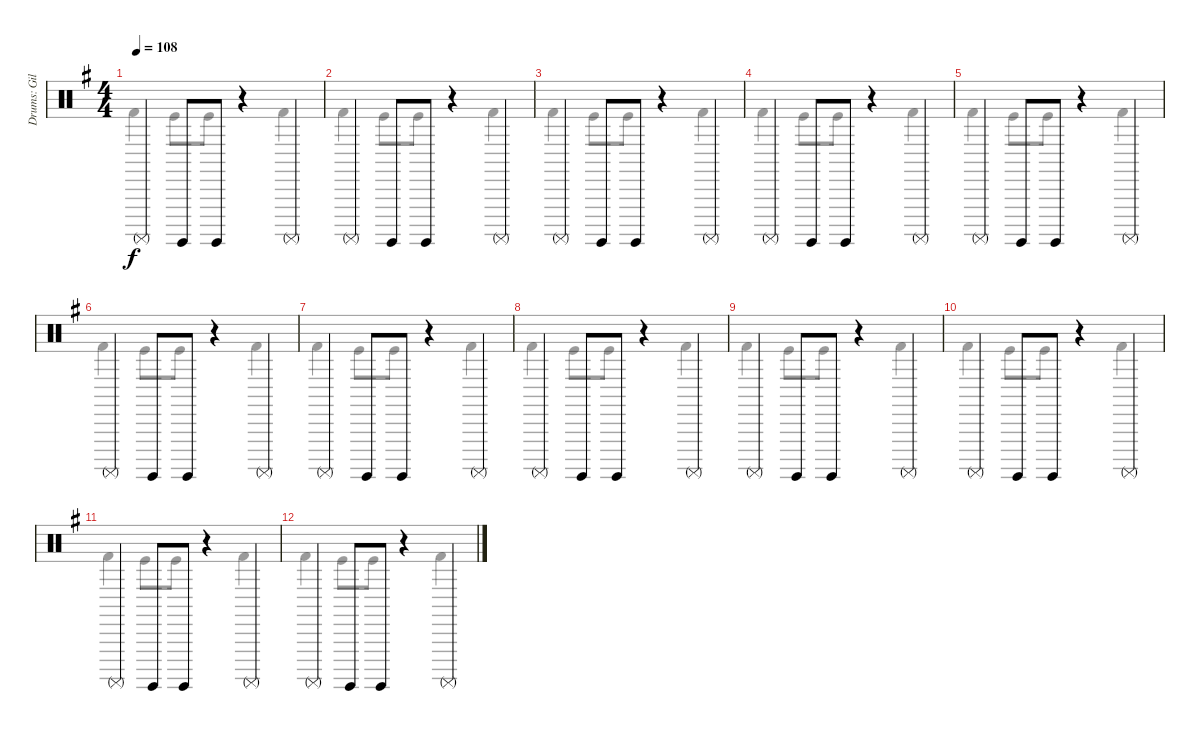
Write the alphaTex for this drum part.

\track ("Drums: Gil" "Drums: Gil") {instrument percussion}
\staff {score}
\articulation defaults
\voice
\ts (4 4)
\tempo 108
\clef neutral
\ks g "Surdo (mute)".4{dy f} "Surdo (hit)".8 "Surdo (hit)".8
r.4 "Surdo (mute)".4 |
"Surdo (mute)".4 "Surdo (hit)".8 "Surdo (hit)".8 r.4 "Surdo (mute)".4 |
"Surdo (mute)".4 "Surdo (hit)".8 "Surdo (hit)".8 r.4 "Surdo (mute)".4 |
"Surdo (mute)".4 "Surdo (hit)".8 "Surdo (hit)".8 r.4 "Surdo (mute)".4 |
"Surdo (mute)".4 "Surdo (hit)".8 "Surdo (hit)".8 r.4 "Surdo (mute)".4 |
"Surdo (mute)".4 "Surdo (hit)".8 "Surdo (hit)".8 r.4 "Surdo (mute)".4 |
"Surdo (mute)".4 "Surdo (hit)".8 "Surdo (hit)".8 r.4 "Surdo (mute)".4 |
"Surdo (mute)".4 "Surdo (hit)".8 "Surdo (hit)".8 r.4 "Surdo (mute)".4 |
"Surdo (mute)".4 "Surdo (hit)".8 "Surdo (hit)".8 r.4 "Surdo (mute)".4 |
"Surdo (mute)".4 "Surdo (hit)".8 "Surdo (hit)".8 r.4 "Surdo (mute)".4 |
"Surdo (mute)".4 "Surdo (hit)".8 "Surdo (hit)".8 r.4 "Surdo (mute)".4 |
"Surdo (mute)".4 "Surdo (hit)".8 "Surdo (hit)".8 r.4 "Surdo (mute)".4
\voice
\clef neutral
\ottava regular
\simile none
\ks g "Kick (hit) 2".4{dy f} "Kick (hit)".8 "Kick (hit)".8
r.4 "Kick (hit) 2".4 |
"Kick (hit) 2".4 "Kick (hit)".8 "Kick (hit)".8 r.4 "Kick (hit) 2".4 |
"Kick (hit) 2".4 "Kick (hit)".8 "Kick (hit)".8 r.4 "Kick (hit) 2".4 |
"Kick (hit) 2".4 "Kick (hit)".8 "Kick (hit)".8 r.4 "Kick (hit) 2".4 |
"Kick (hit) 2".4 "Kick (hit)".8 "Kick (hit)".8 r.4 "Kick (hit) 2".4 |
"Kick (hit) 2".4 "Kick (hit)".8 "Kick (hit)".8 r.4 "Kick (hit) 2".4 |
"Kick (hit) 2".4 "Kick (hit)".8 "Kick (hit)".8 r.4 "Kick (hit) 2".4 |
"Kick (hit) 2".4 "Kick (hit)".8 "Kick (hit)".8 r.4 "Kick (hit) 2".4 |
"Kick (hit) 2".4 "Kick (hit)".8 "Kick (hit)".8 r.4 "Kick (hit) 2".4 |
"Kick (hit) 2".4 "Kick (hit)".8 "Kick (hit)".8 r.4 "Kick (hit) 2".4 |
"Kick (hit) 2".4 "Kick (hit)".8 "Kick (hit)".8 r.4 "Kick (hit) 2".4 |
"Kick (hit) 2".4 "Kick (hit)".8 "Kick (hit)".8 r.4 "Kick (hit) 2".4
